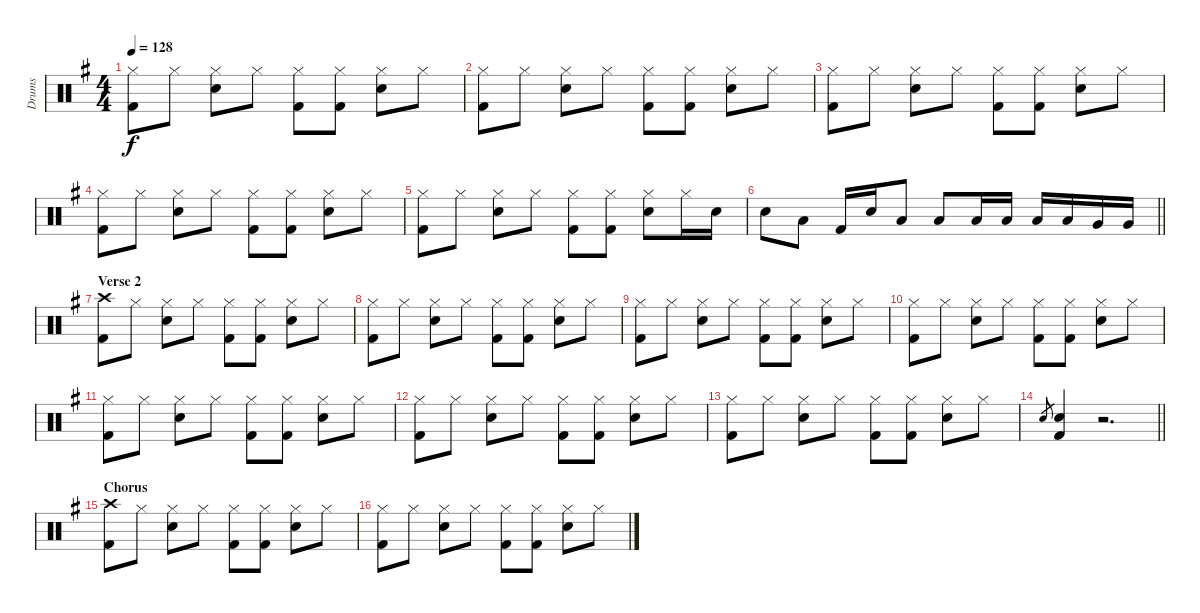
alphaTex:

\track ("Drums" "Drums") {instrument percussion}
\staff {score}
\articulation defaults
\ts (4 4)
\tempo 128
\clef neutral
\ks g
("Hi-Hat (closed)" "Kick (hit) 2").8{dy f} "Hi-Hat (closed)".8 ("Hi-Hat (closed)" "Snare (hit) 2").8 "Hi-Hat (closed)".8 ("Hi-Hat (closed)" "Kick (hit) 2").8 ("Hi-Hat (closed)" "Kick (hit) 2").8 ("Hi-Hat (closed)" "Snare (hit) 2").8 "Hi-Hat (closed)".8 |
("Hi-Hat (closed)" "Kick (hit) 2").8 "Hi-Hat (closed)".8 ("Hi-Hat (closed)" "Snare (hit) 2").8 "Hi-Hat (closed)".8 ("Hi-Hat (closed)" "Kick (hit) 2").8 ("Hi-Hat (closed)" "Kick (hit) 2").8 ("Hi-Hat (closed)" "Snare (hit) 2").8 "Hi-Hat (closed)".8 |
("Hi-Hat (closed)" "Kick (hit) 2").8 "Hi-Hat (closed)".8 ("Hi-Hat (closed)" "Snare (hit) 2").8 "Hi-Hat (closed)".8 ("Hi-Hat (closed)" "Kick (hit) 2").8 ("Hi-Hat (closed)" "Kick (hit) 2").8 ("Hi-Hat (closed)" "Snare (hit) 2").8 "Hi-Hat (closed)".8 |
("Hi-Hat (closed)" "Kick (hit) 2").8 "Hi-Hat (closed)".8 ("Hi-Hat (closed)" "Snare (hit) 2").8 "Hi-Hat (closed)".8 ("Hi-Hat (closed)" "Kick (hit) 2").8 ("Hi-Hat (closed)" "Kick (hit) 2").8 ("Hi-Hat (closed)" "Snare (hit) 2").8 "Hi-Hat (closed)".8 |
("Hi-Hat (closed)" "Kick (hit) 2").8 "Hi-Hat (closed)".8 ("Hi-Hat (closed)" "Snare (hit) 2").8 "Hi-Hat (closed)".8 ("Hi-Hat (closed)" "Kick (hit) 2").8 ("Hi-Hat (closed)" "Kick (hit) 2").8 ("Hi-Hat (closed)" "Snare (hit) 2").8 "Hi-Hat (closed)".16 "Snare (hit) 2".16 |
\barLineRight lightlight "Snare (hit) 2".8 "Low Tom (hit)".8 "Kick (hit) 2".16 "Snare (hit) 2".16 "Low Tom (hit)".8 "Low Tom (hit)".8 "Low Tom (hit)".16 "Low Tom (hit)".16 "Low Tom (hit)".16 "Low Tom (hit)".16 "Very Low Tom (hit)".16 "Very Low Tom (hit)".16
|
\section ("" "Verse 2")
("Crash high (hit)" "Kick (hit) 2").8 "Hi-Hat (closed)".8 ("Hi-Hat (closed)" "Snare (hit) 2").8 "Hi-Hat (closed)".8 ("Hi-Hat (closed)" "Kick (hit) 2").8 ("Hi-Hat (closed)" "Kick (hit) 2").8 ("Hi-Hat (closed)" "Snare (hit) 2").8 "Hi-Hat (closed)".8 |
("Hi-Hat (closed)" "Kick (hit) 2").8 "Hi-Hat (closed)".8 ("Hi-Hat (closed)" "Snare (hit) 2").8 "Hi-Hat (closed)".8 ("Hi-Hat (closed)" "Kick (hit) 2").8 ("Hi-Hat (closed)" "Kick (hit) 2").8 ("Hi-Hat (closed)" "Snare (hit) 2").8 "Hi-Hat (closed)".8 |
("Hi-Hat (closed)" "Kick (hit) 2").8 "Hi-Hat (closed)".8 ("Hi-Hat (closed)" "Snare (hit) 2").8 "Hi-Hat (closed)".8 ("Hi-Hat (closed)" "Kick (hit) 2").8 ("Hi-Hat (closed)" "Kick (hit) 2").8 ("Hi-Hat (closed)" "Snare (hit) 2").8 "Hi-Hat (closed)".8 |
("Hi-Hat (closed)" "Kick (hit) 2").8 "Hi-Hat (closed)".8 ("Hi-Hat (closed)" "Snare (hit) 2").8 "Hi-Hat (closed)".8 ("Hi-Hat (closed)" "Kick (hit) 2").8 ("Hi-Hat (closed)" "Kick (hit) 2").8 ("Hi-Hat (closed)" "Snare (hit) 2").8 "Hi-Hat (closed)".8 |
("Hi-Hat (closed)" "Kick (hit) 2").8 "Hi-Hat (closed)".8 ("Hi-Hat (closed)" "Snare (hit) 2").8 "Hi-Hat (closed)".8 ("Hi-Hat (closed)" "Kick (hit) 2").8 ("Hi-Hat (closed)" "Kick (hit) 2").8 ("Hi-Hat (closed)" "Snare (hit) 2").8 "Hi-Hat (closed)".8 |
("Hi-Hat (closed)" "Kick (hit) 2").8 "Hi-Hat (closed)".8 ("Hi-Hat (closed)" "Snare (hit) 2").8 "Hi-Hat (closed)".8 ("Hi-Hat (closed)" "Kick (hit) 2").8 ("Hi-Hat (closed)" "Kick (hit) 2").8 ("Hi-Hat (closed)" "Snare (hit) 2").8 "Hi-Hat (closed)".8 |
("Hi-Hat (closed)" "Kick (hit) 2").8 "Hi-Hat (closed)".8 ("Hi-Hat (closed)" "Snare (hit) 2").8 "Hi-Hat (closed)".8 ("Hi-Hat (closed)" "Kick (hit) 2").8 ("Hi-Hat (closed)" "Kick (hit) 2").8 ("Hi-Hat (closed)" "Snare (hit) 2").8 "Hi-Hat (closed)".8 |
\barLineRight lightlight "Snare (hit) 2".8{gr}
("Snare (hit) 2" "Kick (hit) 2").4 r.2{d} |
\section ("" "Chorus")
("Crash high (hit)" "Kick (hit) 2").8 "Hi-Hat (closed)".8 ("Hi-Hat (closed)" "Snare (hit) 2").8 "Hi-Hat (closed)".8 ("Hi-Hat (closed)" "Kick (hit) 2").8 ("Hi-Hat (closed)" "Kick (hit) 2").8 ("Hi-Hat (closed)" "Snare (hit) 2").8 "Hi-Hat (closed)".8 |
("Hi-Hat (closed)" "Kick (hit) 2").8 "Hi-Hat (closed)".8 ("Hi-Hat (closed)" "Snare (hit) 2").8 "Hi-Hat (closed)".8 ("Hi-Hat (closed)" "Kick (hit) 2").8 ("Hi-Hat (closed)" "Kick (hit) 2").8 ("Hi-Hat (closed)" "Snare (hit) 2").8 "Hi-Hat (closed)".8
